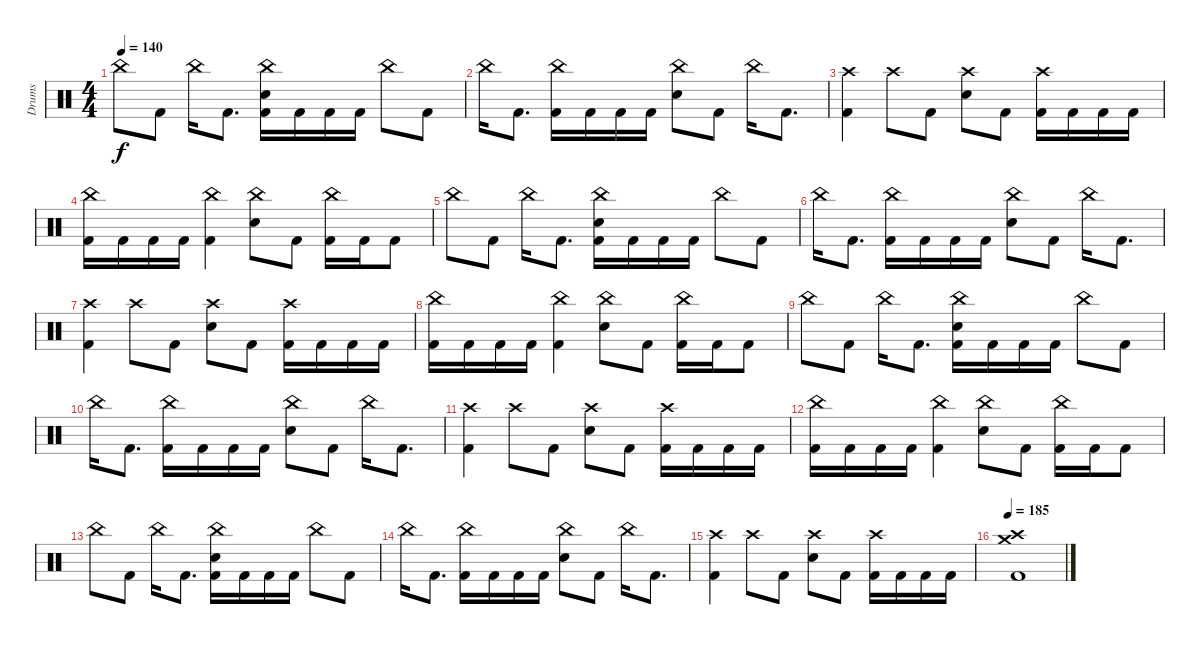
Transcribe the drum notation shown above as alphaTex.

\track ("Drums" "Drums") {instrument percussion}
\staff {score}
\articulation defaults
\ts (4 4)
\tempo 140
\clef neutral
\ks c "China (hit)".8{dy f} "Kick (hit) 2".8 "China (hit)".16 "Kick (hit) 2".8{d}
("China (hit)" "Electric Snare (hit)" "Kick (hit) 2").16 "Kick (hit) 2".16 "Kick (hit) 2".16 "Kick (hit) 2".16 "China (hit)".8 "Kick (hit) 2".8 |
"China (hit)".16 "Kick (hit) 2".8{d} ("China (hit)" "Kick (hit) 2").16 "Kick (hit) 2".16 "Kick (hit) 2".16 "Kick (hit) 2".16 ("China (hit)" "Electric Snare (hit)").8 "Kick (hit) 2".8 "China (hit)".16 "Kick (hit) 2".8{d} |
("Crash high (hit)" "Kick (hit) 2").4 "Crash high (hit)".8 "Kick (hit) 2".8 ("Crash high (hit)" "Electric Snare (hit)").8 "Kick (hit) 2".8 ("Crash high (hit)" "Kick (hit) 2").16 "Kick (hit) 2".16 "Kick (hit) 2".16 "Kick (hit) 2".16 |
("China (hit)" "Kick (hit) 2").16 "Kick (hit) 2".16 "Kick (hit) 2".16 "Kick (hit) 2".16 ("China (hit)" "Kick (hit) 2").4 ("China (hit)" "Electric Snare (hit)").8 "Kick (hit) 2".8 ("China (hit)" "Kick (hit) 2").16 "Kick (hit) 2".16 "Kick (hit) 2".8 |
"China (hit)".8 "Kick (hit) 2".8 "China (hit)".16 "Kick (hit) 2".8{d} ("China (hit)" "Electric Snare (hit)" "Kick (hit) 2").16 "Kick (hit) 2".16 "Kick (hit) 2".16 "Kick (hit) 2".16 "China (hit)".8 "Kick (hit) 2".8 |
"China (hit)".16 "Kick (hit) 2".8{d} ("China (hit)" "Kick (hit) 2").16 "Kick (hit) 2".16 "Kick (hit) 2".16 "Kick (hit) 2".16 ("China (hit)" "Electric Snare (hit)").8 "Kick (hit) 2".8 "China (hit)".16 "Kick (hit) 2".8{d} |
("Crash high (hit)" "Kick (hit) 2").4 "Crash high (hit)".8 "Kick (hit) 2".8 ("Crash high (hit)" "Electric Snare (hit)").8 "Kick (hit) 2".8 ("Crash high (hit)" "Kick (hit) 2").16 "Kick (hit) 2".16 "Kick (hit) 2".16 "Kick (hit) 2".16 |
("China (hit)" "Kick (hit) 2").16 "Kick (hit) 2".16 "Kick (hit) 2".16 "Kick (hit) 2".16 ("China (hit)" "Kick (hit) 2").4 ("China (hit)" "Electric Snare (hit)").8 "Kick (hit) 2".8 ("China (hit)" "Kick (hit) 2").16 "Kick (hit) 2".16 "Kick (hit) 2".8 |
"China (hit)".8 "Kick (hit) 2".8 "China (hit)".16 "Kick (hit) 2".8{d} ("China (hit)" "Electric Snare (hit)" "Kick (hit) 2").16 "Kick (hit) 2".16 "Kick (hit) 2".16 "Kick (hit) 2".16 "China (hit)".8 "Kick (hit) 2".8 |
"China (hit)".16 "Kick (hit) 2".8{d} ("China (hit)" "Kick (hit) 2").16 "Kick (hit) 2".16 "Kick (hit) 2".16 "Kick (hit) 2".16 ("China (hit)" "Electric Snare (hit)").8 "Kick (hit) 2".8 "China (hit)".16 "Kick (hit) 2".8{d} |
("Crash high (hit)" "Kick (hit) 2").4 "Crash high (hit)".8 "Kick (hit) 2".8 ("Crash high (hit)" "Electric Snare (hit)").8 "Kick (hit) 2".8 ("Crash high (hit)" "Kick (hit) 2").16 "Kick (hit) 2".16 "Kick (hit) 2".16 "Kick (hit) 2".16 |
("China (hit)" "Kick (hit) 2").16 "Kick (hit) 2".16 "Kick (hit) 2".16 "Kick (hit) 2".16 ("China (hit)" "Kick (hit) 2").4 ("China (hit)" "Electric Snare (hit)").8 "Kick (hit) 2".8 ("China (hit)" "Kick (hit) 2").16 "Kick (hit) 2".16 "Kick (hit) 2".8 |
"China (hit)".8 "Kick (hit) 2".8 "China (hit)".16 "Kick (hit) 2".8{d} ("China (hit)" "Electric Snare (hit)" "Kick (hit) 2").16 "Kick (hit) 2".16 "Kick (hit) 2".16 "Kick (hit) 2".16 "China (hit)".8 "Kick (hit) 2".8 |
"China (hit)".16 "Kick (hit) 2".8{d} ("China (hit)" "Kick (hit) 2").16 "Kick (hit) 2".16 "Kick (hit) 2".16 "Kick (hit) 2".16 ("China (hit)" "Electric Snare (hit)").8 "Kick (hit) 2".8 "China (hit)".16 "Kick (hit) 2".8{d} |
("Crash high (hit)" "Kick (hit) 2").4 "Crash high (hit)".8 "Kick (hit) 2".8 ("Crash high (hit)" "Electric Snare (hit)").8 "Kick (hit) 2".8 ("Crash high (hit)" "Kick (hit) 2").16 "Kick (hit) 2".16 "Kick (hit) 2".16 "Kick (hit) 2".16 |
\tempo 185
("Crash medium (hit)" "Crash high (hit)" "Kick (hit) 2").1
